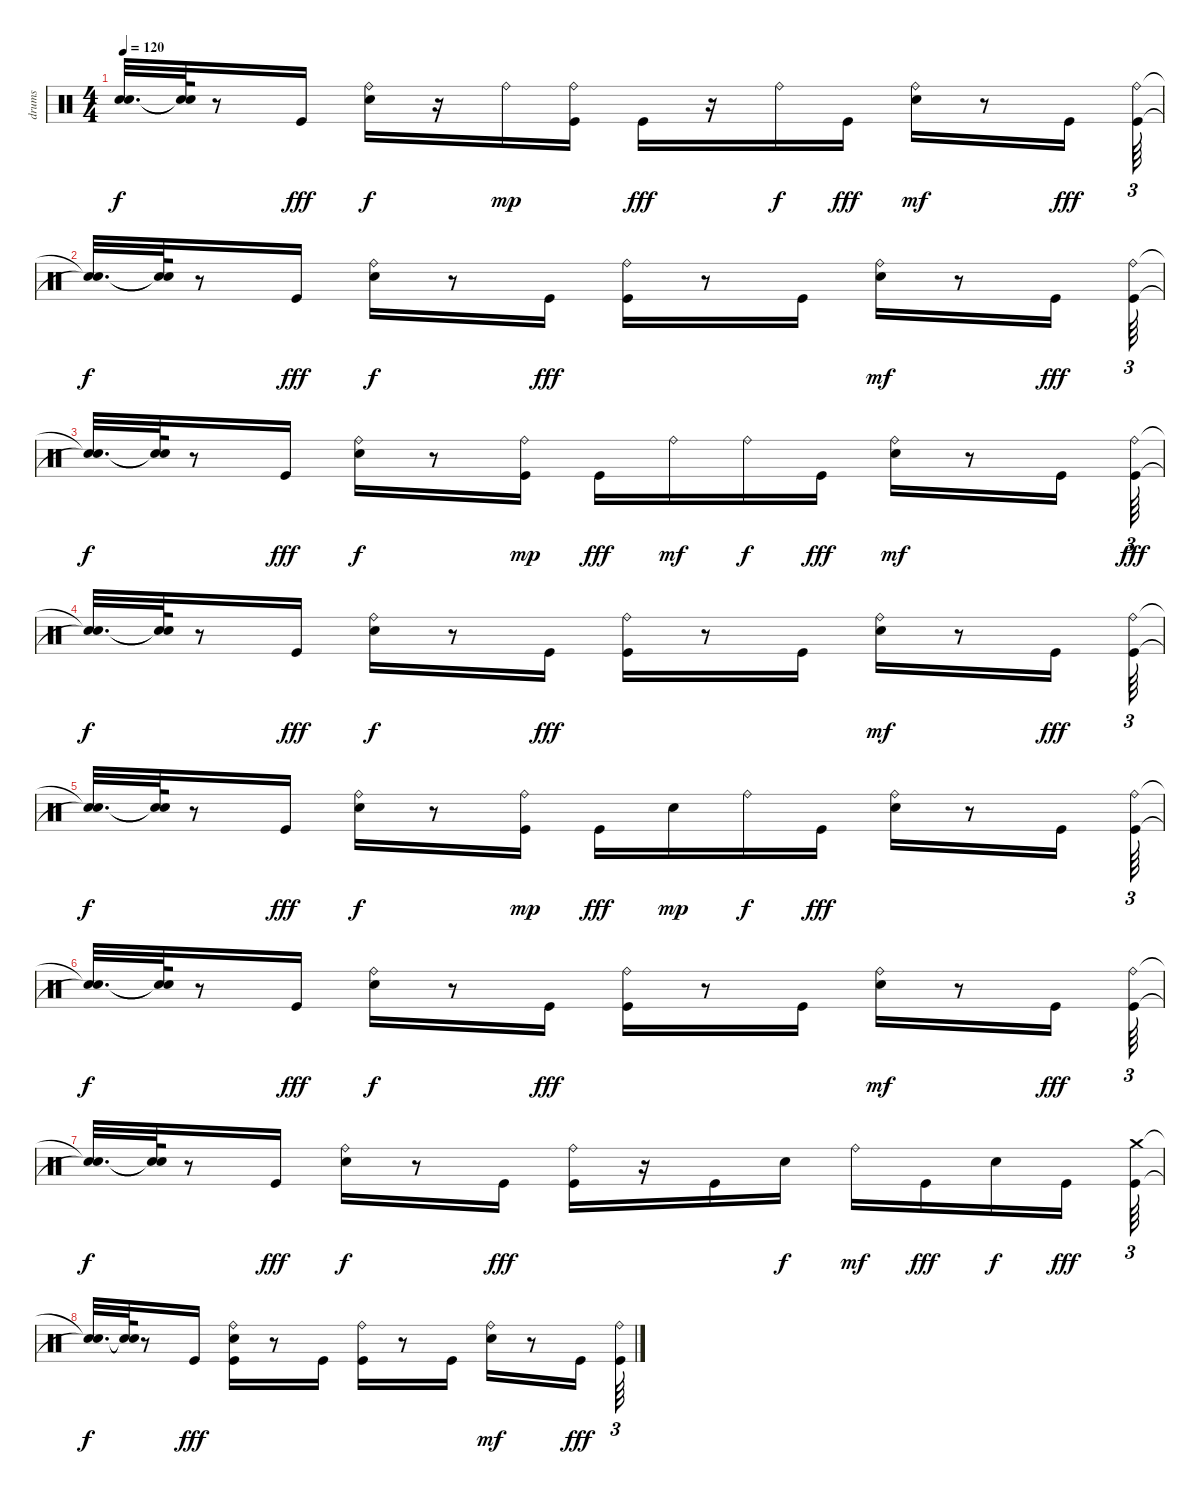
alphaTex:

\track ("drums" "drums") {instrument percussion}
\staff {score}
\articulation defaults
\ts (4 4)
\tempo 120
\clef neutral
\ks c
("Snare (hit)"{t} "Snare (hit)"{t}).32{d dy f} ("Snare (hit)"{t} "Snare (hit)"{t}).64 r.8 "Kick (hit)".16{dy fff} ("Snare (hit) 2" "Ride (bell)").16{dy f} r.16 "Ride (bell)".16{dy mp} ("Kick (hit)" "Ride (bell)").16 "Kick (hit)".16{dy fff} r.16 "Ride (bell)".16{dy f} "Kick (hit)".16{dy fff} ("Snare (hit) 2" "Ride (bell)").16{dy mf} r.8 "Kick (hit)".16{dy fff} ("Kick (hit)" "Ride (bell)").64{tu (3 2)} |
("Snare (hit)"{t} "Snare (hit)"{t}).32{d dy f} ("Snare (hit)"{t} "Snare (hit)"{t}).64 r.8 "Kick (hit)".16{dy fff} ("Snare (hit) 2" "Ride (bell)").16{dy f} r.8 "Kick (hit)".16{dy fff} ("Kick (hit)" "Ride (bell)").16 r.8 "Kick (hit)".16 ("Snare (hit) 2" "Ride (bell)").16{dy mf} r.8 "Kick (hit)".16{dy fff} ("Kick (hit)" "Ride (bell)").64{tu (3 2)} |
("Snare (hit)"{t} "Snare (hit)"{t}).32{d dy f} ("Snare (hit)"{t} "Snare (hit)"{t}).64 r.8 "Kick (hit)".16{dy fff} ("Snare (hit) 2" "Ride (bell)").16{dy f} r.8 ("Kick (hit)" "Ride (bell)").16{dy mp} "Kick (hit)".16{dy fff} "Ride (bell)".16{dy mf} "Ride (bell)".16{dy f} "Kick (hit)".16{dy fff} ("Snare (hit) 2" "Ride (bell)").16{dy mf} r.8 "Kick (hit)".16 ("Kick (hit)" "Ride (bell)").64{tu (3 2) dy fff} |
("Snare (hit)"{t} "Snare (hit)"{t}).32{d dy f} ("Snare (hit)"{t} "Snare (hit)"{t}).64 r.8 "Kick (hit)".16{dy fff} ("Snare (hit) 2" "Ride (bell)").16{dy f} r.8 "Kick (hit)".16{dy fff} ("Kick (hit)" "Ride (bell)").16 r.8 "Kick (hit)".16 ("Snare (hit) 2" "Ride (bell)").16{dy mf} r.8 "Kick (hit)".16{dy fff} ("Kick (hit)" "Ride (bell)").64{tu (3 2)} |
("Snare (hit)"{t} "Snare (hit)"{t}).32{d dy f} ("Snare (hit)"{t} "Snare (hit)"{t}).64 r.8 "Kick (hit)".16{dy fff} ("Snare (hit) 2" "Ride (bell)").16{dy f} r.8 ("Kick (hit)" "Ride (bell)").16{dy mp} "Kick (hit)".16{dy fff} "Snare (hit) 2".16{dy mp} "Ride (bell)".16{dy f} "Kick (hit)".16{dy fff} ("Snare (hit) 2" "Ride (bell)").16 r.8 "Kick (hit)".16 ("Kick (hit)" "Ride (bell)").64{tu (3 2)} |
("Snare (hit)"{t} "Snare (hit)"{t}).32{d dy f} ("Snare (hit)"{t} "Snare (hit)"{t}).64 r.8 "Kick (hit)".16{dy fff} ("Snare (hit) 2" "Ride (bell)").16{dy f} r.8 "Kick (hit)".16{dy fff} ("Kick (hit)" "Ride (bell)").16 r.8 "Kick (hit)".16 ("Snare (hit) 2" "Ride (bell)").16{dy mf} r.8 "Kick (hit)".16{dy fff} ("Kick (hit)" "Ride (bell)").64{tu (3 2)} |
("Snare (hit)"{t} "Snare (hit)"{t}).32{d dy f} ("Snare (hit)"{t} "Snare (hit)"{t}).64 r.8 "Kick (hit)".16{dy fff} ("Snare (hit) 2" "Ride (bell)").16{dy f} r.8 "Kick (hit)".16{dy fff} ("Kick (hit)" "Ride (bell)").16 r.16 "Kick (hit)".16 "Snare (hit) 2".16{dy f} "Ride (bell)".16{dy mf} "Kick (hit)".16{dy fff} "Snare (hit) 2".16{dy f} "Kick (hit)".16{dy fff} ("Kick (hit)" "Crash medium (hit)").64{tu (3 2)} |
("Snare (hit)"{t} "Snare (hit)"{t}).32{d dy f} ("Snare (hit)"{t} "Snare (hit)"{t}).64 r.8 "Kick (hit)".16{dy fff} ("Kick (hit)" "Snare (hit) 2" "Ride (bell)").16 r.8 "Kick (hit)".16 ("Kick (hit)" "Ride (bell)").16 r.8 "Kick (hit)".16 ("Snare (hit) 2" "Ride (bell)").16{dy mf} r.8 "Kick (hit)".16{dy fff} ("Kick (hit)" "Ride (bell)").64{tu (3 2)}
